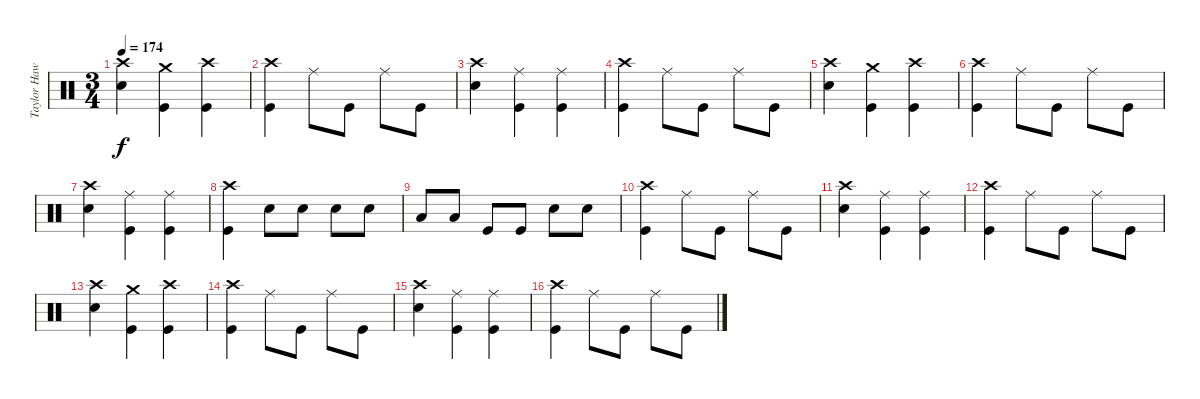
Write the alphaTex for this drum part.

\track ("Taylor Hawkins - Drums" "Taylor Haw") {instrument percussion}
\staff {score}
\articulation defaults
\ts (3 4)
\tempo 174
\clef neutral
\ks c
("Crash high (hit)" "Snare (hit) 2").4{dy f} ("Crash medium (hit)" "Kick (hit)").4 ("Crash high (hit)" "Kick (hit)").4 |
("Crash high (hit)" "Kick (hit)").4 "Ride (middle)".8 "Kick (hit)".8 "Ride (middle)".8 "Kick (hit)".8 |
("Crash high (hit)" "Snare (hit) 2").4 ("Ride (middle)" "Kick (hit)").4 ("Ride (middle)" "Kick (hit)").4 |
("Crash high (hit)" "Kick (hit)").4 "Ride (middle)".8 "Kick (hit)".8 "Ride (middle)".8 "Kick (hit)".8 |
("Crash high (hit)" "Snare (hit) 2").4 ("Crash medium (hit)" "Kick (hit)").4 ("Crash high (hit)" "Kick (hit)").4 |
("Crash high (hit)" "Kick (hit)").4 "Ride (middle)".8 "Kick (hit)".8 "Ride (middle)".8 "Kick (hit)".8 |
("Crash high (hit)" "Snare (hit) 2").4 ("Ride (middle)" "Kick (hit)").4 ("Ride (middle)" "Kick (hit)").4 |
("Crash high (hit)" "Kick (hit)").4 "Snare (hit) 2".8 "Snare (hit) 2".8 "Snare (hit) 2".8 "Snare (hit) 2".8 |
"Low Tom (hit)".8 "Low Tom (hit)".8 "Kick (hit)".8 "Kick (hit)".8 "Snare (hit) 2".8 "Snare (hit) 2".8 |
("Crash high (hit)" "Kick (hit)").4 "Ride (middle)".8 "Kick (hit)".8 "Ride (middle)".8 "Kick (hit)".8 |
("Crash high (hit)" "Snare (hit) 2").4 ("Ride (middle)" "Kick (hit)").4 ("Ride (middle)" "Kick (hit)").4 |
("Crash high (hit)" "Kick (hit)").4 "Ride (middle)".8 "Kick (hit)".8 "Ride (middle)".8 "Kick (hit)".8 |
("Crash high (hit)" "Snare (hit) 2").4 ("Crash medium (hit)" "Kick (hit)").4 ("Crash high (hit)" "Kick (hit)").4 |
("Crash high (hit)" "Kick (hit)").4 "Ride (middle)".8 "Kick (hit)".8 "Ride (middle)".8 "Kick (hit)".8 |
("Crash high (hit)" "Snare (hit) 2").4 ("Ride (middle)" "Kick (hit)").4 ("Ride (middle)" "Kick (hit)").4 |
("Crash high (hit)" "Kick (hit)").4 "Ride (middle)".8 "Kick (hit)".8 "Ride (middle)".8 "Kick (hit)".8
